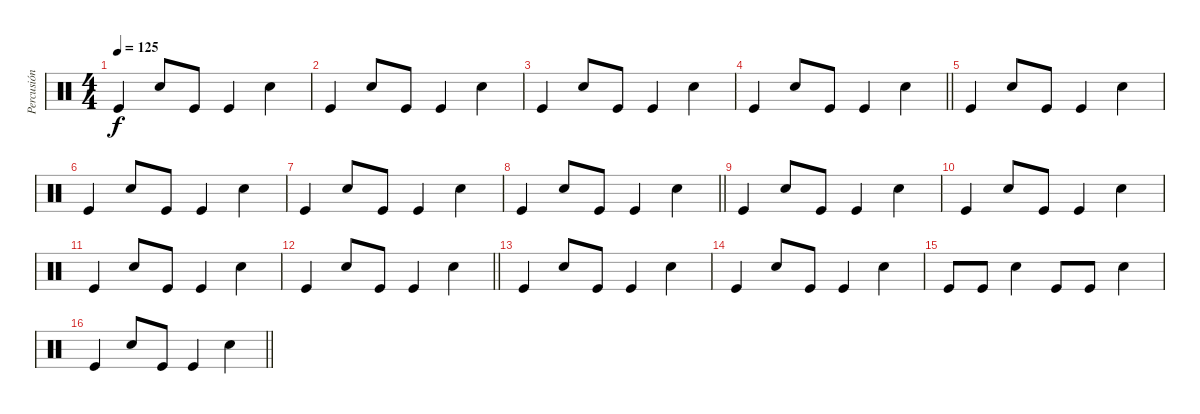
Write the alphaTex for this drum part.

\track ("Percusión" "Percusión") {instrument percussion}
\staff {score}
\articulation defaults
\ts (4 4)
\tempo 125
\clef neutral
\ks c "Kick (hit)".4{dy f} "Snare (hit) 2".8 "Kick (hit)".8 "Kick (hit)".4 "Snare (hit) 2".4
|
"Kick (hit)".4 "Snare (hit) 2".8 "Kick (hit)".8 "Kick (hit)".4 "Snare (hit) 2".4 |
"Kick (hit)".4 "Snare (hit) 2".8 "Kick (hit)".8 "Kick (hit)".4 "Snare (hit) 2".4 |
\barLineRight lightlight "Kick (hit)".4 "Snare (hit) 2".8 "Kick (hit)".8 "Kick (hit)".4 "Snare (hit) 2".4
|
"Kick (hit)".4 "Snare (hit) 2".8 "Kick (hit)".8 "Kick (hit)".4 "Snare (hit) 2".4 |
"Kick (hit)".4 "Snare (hit) 2".8 "Kick (hit)".8 "Kick (hit)".4 "Snare (hit) 2".4 |
"Kick (hit)".4 "Snare (hit) 2".8 "Kick (hit)".8 "Kick (hit)".4 "Snare (hit) 2".4 |
\barLineRight lightlight "Kick (hit)".4 "Snare (hit) 2".8 "Kick (hit)".8 "Kick (hit)".4 "Snare (hit) 2".4
|
"Kick (hit)".4 "Snare (hit) 2".8 "Kick (hit)".8 "Kick (hit)".4 "Snare (hit) 2".4 |
"Kick (hit)".4 "Snare (hit) 2".8 "Kick (hit)".8 "Kick (hit)".4 "Snare (hit) 2".4 |
"Kick (hit)".4 "Snare (hit) 2".8 "Kick (hit)".8 "Kick (hit)".4 "Snare (hit) 2".4 |
\barLineRight lightlight "Kick (hit)".4 "Snare (hit) 2".8 "Kick (hit)".8 "Kick (hit)".4 "Snare (hit) 2".4
|
"Kick (hit)".4 "Snare (hit) 2".8 "Kick (hit)".8 "Kick (hit)".4 "Snare (hit) 2".4 |
"Kick (hit)".4 "Snare (hit) 2".8 "Kick (hit)".8 "Kick (hit)".4 "Snare (hit) 2".4 |
"Kick (hit)".8 "Kick (hit)".8 "Snare (hit) 2".4 "Kick (hit)".8 "Kick (hit)".8 "Snare (hit) 2".4 |
\barLineRight lightlight "Kick (hit)".4 "Snare (hit) 2".8 "Kick (hit)".8 "Kick (hit)".4 "Snare (hit) 2".4
